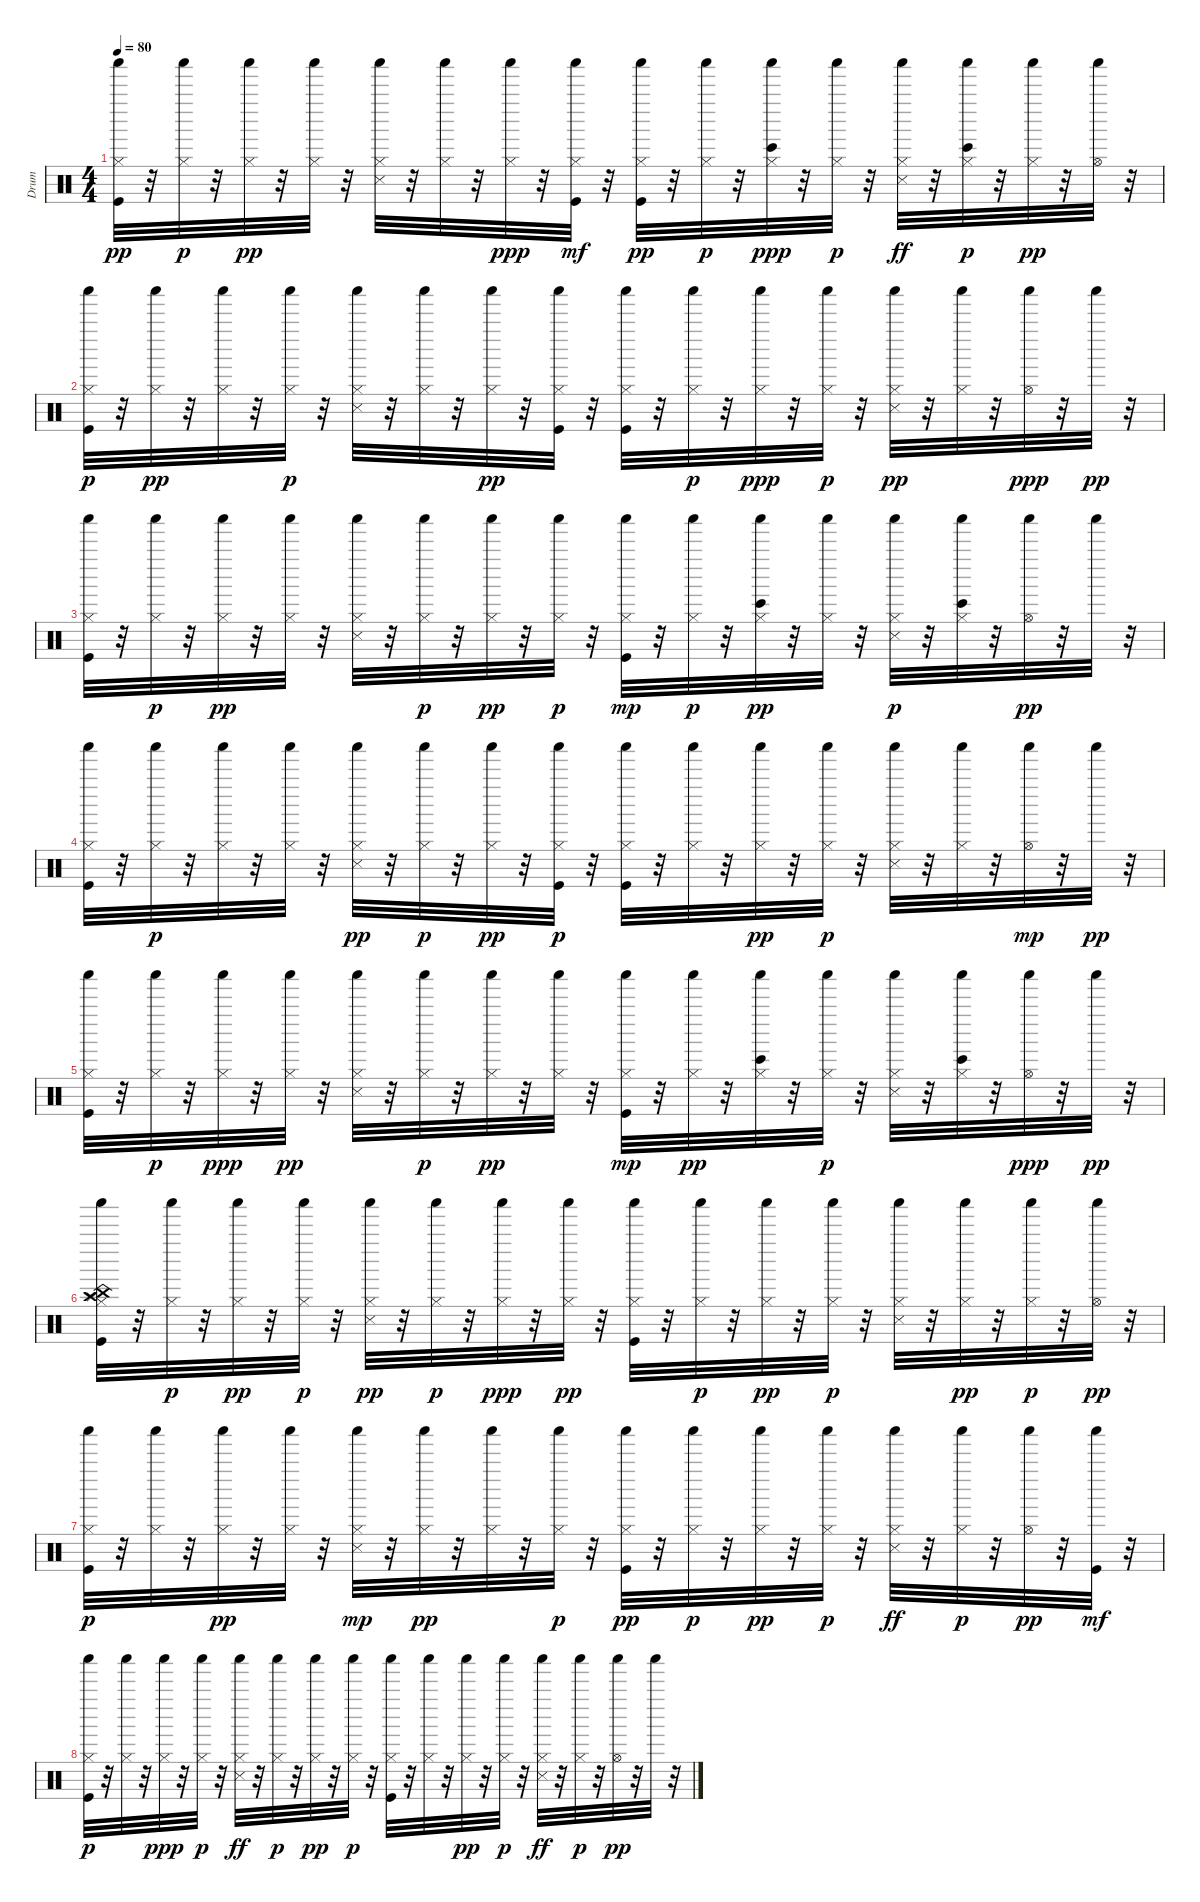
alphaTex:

\track ("Drum" "Drum") {instrument percussion}
\staff {score}
\articulation defaults
\ts (4 4)
\tempo 80
\clef neutral
\ks c
("Kick (hit)" "Shaker (hit)" "Hi-Hat (closed)").32{dy pp} r.32 ("Shaker (hit)" "Hi-Hat (closed)").32{dy p} r.32 ("Shaker (hit)" "Hi-Hat (closed)").32{dy pp} r.32 ("Shaker (hit)" "Hi-Hat (closed)").32 r.32 ("Snare (side stick) 3" "Shaker (hit)" "Hi-Hat (closed)").32 r.32 ("Shaker (hit)" "Hi-Hat (closed)").32 r.32 ("Hi-Hat (closed)" "Shaker (hit)").32{dy ppp} r.32 ("Shaker (hit)" "Hi-Hat (closed)" "Kick (hit)").32{dy mf} r.32 ("Kick (hit)" "Shaker (hit)" "Hi-Hat (closed)").32{dy pp} r.32 ("Shaker (hit)" "Hi-Hat (closed)").32{dy p} r.32 ("Bongo High (hit)" "Shaker (hit)" "Hi-Hat (closed)").32{dy ppp} r.32 ("Shaker (hit)" "Hi-Hat (closed)").32{dy p} r.32 ("Shaker (hit)" "Hi-Hat (closed)" "Snare (side stick) 3").32{dy ff} r.32 ("Shaker (hit)" "Hi-Hat (closed)" "Bongo High (hit)").32{dy p} r.32 ("Shaker (hit)" "Hi-Hat (closed)").32{dy pp} r.32 ("Hi-Hat (open)" "Shaker (hit)").32 r.32 |
("Kick (hit)" "Shaker (hit)" "Hi-Hat (closed)").32{dy p} r.32 ("Shaker (hit)" "Hi-Hat (closed)").32{dy pp} r.32 ("Shaker (hit)" "Hi-Hat (closed)").32 r.32 ("Shaker (hit)" "Hi-Hat (closed)").32{dy p} r.32 ("Snare (side stick) 3" "Hi-Hat (closed)" "Shaker (hit)").32 r.32 ("Shaker (hit)" "Hi-Hat (closed)").32 r.32 ("Shaker (hit)" "Hi-Hat (closed)").32{dy pp} r.32 ("Kick (hit)" "Shaker (hit)" "Hi-Hat (closed)").32 r.32 ("Kick (hit)" "Shaker (hit)" "Hi-Hat (closed)").32 r.32 ("Shaker (hit)" "Hi-Hat (closed)").32{dy p} r.32 ("Shaker (hit)" "Hi-Hat (closed)").32{dy ppp} r.32 ("Shaker (hit)" "Hi-Hat (closed)").32{dy p} r.32 ("Snare (side stick) 3" "Shaker (hit)" "Hi-Hat (closed)").32{dy pp} r.32 ("Hi-Hat (closed)" "Shaker (hit)").32 r.32 ("Hi-Hat (open)" "Shaker (hit)").32{dy ppp} r.32 "Shaker (hit)".32{dy pp} r.32 |
("Kick (hit)" "Shaker (hit)" "Hi-Hat (closed)").32 r.32 ("Shaker (hit)" "Hi-Hat (closed)").32{dy p} r.32 ("Hi-Hat (closed)" "Shaker (hit)").32{dy pp} r.32 ("Shaker (hit)" "Hi-Hat (closed)").32 r.32 ("Hi-Hat (closed)" "Snare (side stick) 3" "Shaker (hit)").32 r.32 ("Shaker (hit)" "Hi-Hat (closed)").32{dy p} r.32 ("Shaker (hit)" "Hi-Hat (closed)").32{dy pp} r.32 ("Shaker (hit)" "Hi-Hat (closed)").32{dy p} r.32 ("Kick (hit)" "Hi-Hat (closed)" "Shaker (hit)").32{dy mp} r.32 ("Shaker (hit)" "Hi-Hat (closed)").32{dy p} r.32 ("Bongo High (hit)" "Shaker (hit)" "Hi-Hat (closed)").32{dy pp} r.32 ("Hi-Hat (closed)" "Shaker (hit)").32 r.32 ("Shaker (hit)" "Snare (side stick) 3" "Hi-Hat (closed)").32{dy p} r.32 ("Shaker (hit)" "Hi-Hat (closed)" "Bongo High (hit)").32 r.32 ("Hi-Hat (open)" "Shaker (hit)").32{dy pp} r.32 "Shaker (hit)".32 r.32 |
("Kick (hit)" "Shaker (hit)" "Hi-Hat (closed)").32 r.32 ("Shaker (hit)" "Hi-Hat (closed)").32{dy p} r.32 ("Shaker (hit)" "Hi-Hat (closed)").32 r.32 ("Shaker (hit)" "Hi-Hat (closed)").32 r.32 ("Snare (side stick) 3" "Shaker (hit)" "Hi-Hat (closed)").32{dy pp} r.32 ("Shaker (hit)" "Hi-Hat (closed)").32{dy p} r.32 ("Shaker (hit)" "Hi-Hat (closed)").32{dy pp} r.32 ("Shaker (hit)" "Kick (hit)" "Hi-Hat (closed)").32{dy p} r.32 ("Kick (hit)" "Shaker (hit)" "Hi-Hat (closed)").32 r.32 ("Shaker (hit)" "Hi-Hat (closed)").32 r.32 ("Shaker (hit)" "Hi-Hat (closed)").32{dy pp} r.32 ("Shaker (hit)" "Hi-Hat (closed)").32{dy p} r.32 ("Snare (side stick) 3" "Hi-Hat (closed)" "Shaker (hit)").32 r.32 ("Shaker (hit)" "Hi-Hat (closed)").32 r.32 ("Shaker (hit)" "Hi-Hat (open)").32{dy mp} r.32 "Shaker (hit)".32{dy pp} r.32 |
("Kick (hit)" "Shaker (hit)" "Hi-Hat (closed)").32 r.32 ("Shaker (hit)" "Hi-Hat (closed)").32{dy p} r.32 ("Hi-Hat (closed)" "Shaker (hit)").32{dy ppp} r.32 ("Shaker (hit)" "Hi-Hat (closed)").32{dy pp} r.32 ("Shaker (hit)" "Snare (side stick) 3" "Hi-Hat (closed)").32 r.32 ("Shaker (hit)" "Hi-Hat (closed)").32{dy p} r.32 ("Hi-Hat (closed)" "Shaker (hit)").32{dy pp} r.32 ("Shaker (hit)" "Hi-Hat (closed)").32 r.32 ("Kick (hit)" "Hi-Hat (closed)" "Shaker (hit)").32{dy mp} r.32 ("Hi-Hat (closed)" "Shaker (hit)").32{dy pp} r.32 ("Bongo High (hit)" "Hi-Hat (closed)" "Shaker (hit)").32 r.32 ("Shaker (hit)" "Hi-Hat (closed)").32{dy p} r.32 ("Snare (side stick) 3" "Shaker (hit)" "Hi-Hat (closed)").32 r.32 ("Shaker (hit)" "Hi-Hat (closed)" "Bongo High (hit)").32 r.32 ("Hi-Hat (open)" "Shaker (hit)").32{dy ppp} r.32 "Shaker (hit)".32{dy pp} r.32 |
("Splash (hit)" "Crash high (hit)" "China (hit)" "Kick (hit)" "Shaker (hit)" "Hi-Hat (closed)").32 r.32 ("Shaker (hit)" "Hi-Hat (closed)").32{dy p} r.32 ("Shaker (hit)" "Hi-Hat (closed)").32{dy pp} r.32 ("Shaker (hit)" "Hi-Hat (closed)").32{dy p} r.32 ("Snare (side stick) 3" "Shaker (hit)" "Hi-Hat (closed)").32{dy pp} r.32 ("Shaker (hit)" "Hi-Hat (closed)").32{dy p} r.32 ("Shaker (hit)" "Hi-Hat (closed)").32{dy ppp} r.32 ("Shaker (hit)" "Hi-Hat (closed)").32{dy pp} r.32 ("Kick (hit)" "Shaker (hit)" "Hi-Hat (closed)").32 r.32 ("Shaker (hit)" "Hi-Hat (closed)").32{dy p} r.32 ("Shaker (hit)" "Hi-Hat (closed)").32{dy pp} r.32 ("Shaker (hit)" "Hi-Hat (closed)").32{dy p} r.32 ("Snare (side stick) 3" "Hi-Hat (closed)" "Shaker (hit)").32 r.32 ("Hi-Hat (closed)" "Shaker (hit)").32{dy pp} r.32 ("Shaker (hit)" "Hi-Hat (closed)").32{dy p} r.32 ("Hi-Hat (open)" "Shaker (hit)").32{dy pp} r.32 |
("Kick (hit)" "Shaker (hit)" "Hi-Hat (closed)").32{dy p} r.32 ("Shaker (hit)" "Hi-Hat (closed)").32 r.32 ("Hi-Hat (closed)" "Shaker (hit)").32{dy pp} r.32 ("Hi-Hat (closed)" "Shaker (hit)").32 r.32 ("Snare (side stick) 3" "Hi-Hat (closed)" "Shaker (hit)").32{dy mp} r.32 ("Hi-Hat (closed)" "Shaker (hit)").32{dy pp} r.32 ("Hi-Hat (closed)" "Shaker (hit)").32 r.32 ("Shaker (hit)" "Hi-Hat (closed)").32{dy p} r.32 ("Hi-Hat (closed)" "Kick (hit)" "Shaker (hit)").32{dy pp} r.32 ("Shaker (hit)" "Hi-Hat (closed)").32{dy p} r.32 ("Shaker (hit)" "Hi-Hat (closed)").32{dy pp} r.32 ("Hi-Hat (closed)" "Shaker (hit)").32{dy p} r.32 ("Shaker (hit)" "Hi-Hat (closed)" "Snare (side stick) 3").32{dy ff} r.32 ("Shaker (hit)" "Hi-Hat (closed)").32{dy p} r.32 ("Hi-Hat (open)" "Shaker (hit)").32{dy pp} r.32 ("Shaker (hit)" "Kick (hit)").32{dy mf} r.32 |
("Shaker (hit)" "Kick (hit)" "Hi-Hat (closed)").32{dy p} r.32 ("Shaker (hit)" "Hi-Hat (closed)").32 r.32 ("Shaker (hit)" "Hi-Hat (closed)").32{dy ppp} r.32 ("Shaker (hit)" "Hi-Hat (closed)").32{dy p} r.32 ("Shaker (hit)" "Hi-Hat (closed)" "Snare (side stick) 3").32{dy ff} r.32 ("Shaker (hit)" "Hi-Hat (closed)").32{dy p} r.32 ("Shaker (hit)" "Hi-Hat (closed)").32{dy pp} r.32 ("Shaker (hit)" "Hi-Hat (closed)").32{dy p} r.32 ("Shaker (hit)" "Kick (hit)" "Hi-Hat (closed)").32 r.32 ("Shaker (hit)" "Hi-Hat (closed)").32 r.32 ("Shaker (hit)" "Hi-Hat (closed)").32{dy pp} r.32 ("Shaker (hit)" "Hi-Hat (closed)").32{dy p} r.32 ("Shaker (hit)" "Hi-Hat (closed)" "Snare (side stick) 3").32{dy ff} r.32 ("Shaker (hit)" "Hi-Hat (closed)").32{dy p} r.32 ("Hi-Hat (open)" "Shaker (hit)").32{dy pp} r.32 "Shaker (hit)".32 r.32
